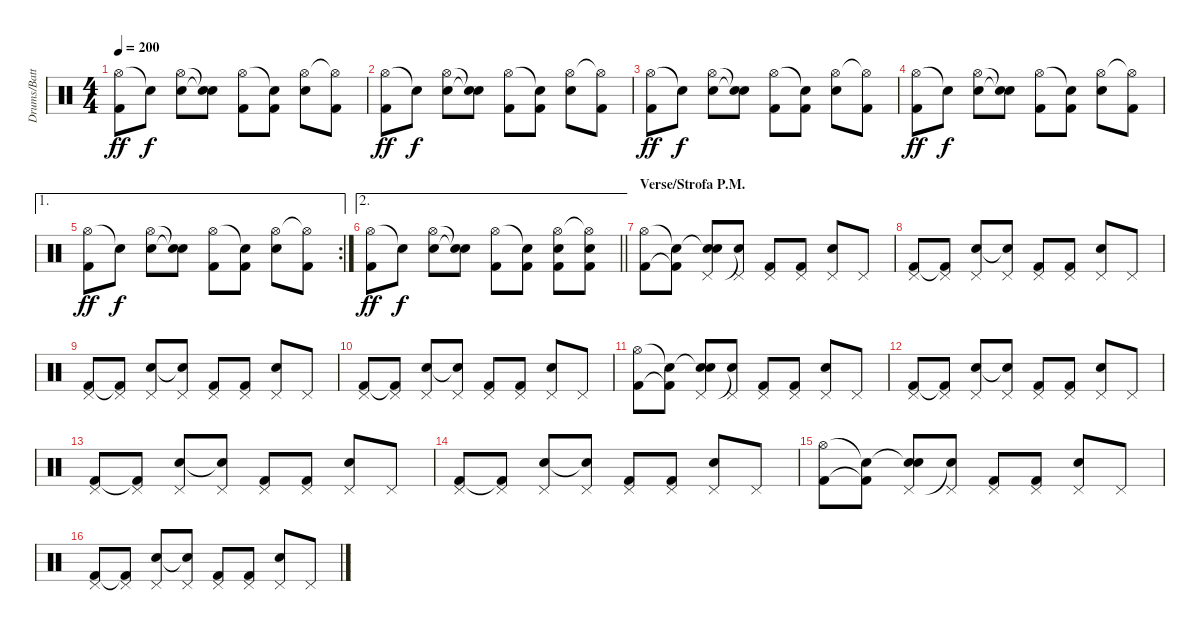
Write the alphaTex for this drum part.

\track ("Drums/Batteria" "Drums/Batt") {instrument percussion}
\staff {score}
\articulation defaults
\ts (4 4)
\tempo 200
\clef neutral
\ks c
("Hi-Hat (open)" "Kick (hit) 2").8{dy ff} "Snare (hit)"{t}.8{dy f} ("Hi-Hat (open)" "Electric Snare (hit)").8 ("Snare (hit)"{t} "Snare (hit)"{t}).8 ("Hi-Hat (open)" "Kick (hit) 2").8 ("Snare (hit)"{t} "Kick (hit) 2").8 ("Hi-Hat (open)" "Electric Snare (hit)").8 ("Hi-Hat (open)"{t} "Kick (hit) 2").8 |
("Hi-Hat (open)" "Kick (hit) 2").8{dy ff} "Snare (hit)"{t}.8{dy f} ("Hi-Hat (open)" "Electric Snare (hit)").8 ("Snare (hit)"{t} "Snare (hit)"{t}).8 ("Hi-Hat (open)" "Kick (hit) 2").8 ("Snare (hit)"{t} "Kick (hit) 2").8 ("Hi-Hat (open)" "Electric Snare (hit)").8 ("Hi-Hat (open)"{t} "Kick (hit) 2").8 |
("Hi-Hat (open)" "Kick (hit) 2").8{dy ff} "Snare (hit)"{t}.8{dy f} ("Hi-Hat (open)" "Electric Snare (hit)").8 ("Snare (hit)"{t} "Snare (hit)"{t}).8 ("Hi-Hat (open)" "Kick (hit) 2").8 ("Snare (hit)"{t} "Kick (hit) 2").8 ("Hi-Hat (open)" "Electric Snare (hit)").8 ("Hi-Hat (open)"{t} "Kick (hit) 2").8 |
("Hi-Hat (open)" "Kick (hit) 2").8{dy ff} "Snare (hit)"{t}.8{dy f} ("Hi-Hat (open)" "Electric Snare (hit)").8 ("Snare (hit)"{t} "Snare (hit)"{t}).8 ("Hi-Hat (open)" "Kick (hit) 2").8 ("Snare (hit)"{t} "Kick (hit) 2").8 ("Hi-Hat (open)" "Electric Snare (hit)").8 ("Hi-Hat (open)"{t} "Kick (hit) 2").8 |
\ae 1
\rc 2
("Hi-Hat (open)" "Kick (hit) 2").8{dy ff} "Snare (hit)"{t}.8{dy f} ("Hi-Hat (open)" "Electric Snare (hit)").8 ("Snare (hit)"{t} "Snare (hit)"{t}).8 ("Hi-Hat (open)" "Kick (hit) 2").8 ("Snare (hit)"{t} "Kick (hit) 2").8 ("Hi-Hat (open)" "Electric Snare (hit)").8 ("Hi-Hat (open)"{t} "Kick (hit) 2").8 |
\ae 2
\barLineRight lightlight
("Hi-Hat (open)" "Kick (hit) 2").8{dy ff} "Snare (hit)"{t}.8{dy f} ("Hi-Hat (open)" "Electric Snare (hit)").8 ("Snare (hit)"{t} "Snare (hit)"{t}).8 ("Hi-Hat (open)" "Kick (hit) 2").8 ("Snare (hit)"{t} "Kick (hit) 2").8 ("Hi-Hat (open)" "Electric Snare (hit)" "Kick (hit) 2").8 ("Hi-Hat (open)"{t} "Electric Snare (hit)" "Kick (hit) 2").8 |
\section ("" "Verse/Strofa P.M.")
("Hi-Hat (open)" "Kick (hit) 2").8 ("Snare (hit)"{t} "Kick (hit) 2"{t}).8 ("Snare (hit)"{t} "Pedal Hi-Hat (hit)" "Electric Snare (hit)").8 ("Pedal Hi-Hat (hit)" "Snare (hit)"{t}).8 ("Pedal Hi-Hat (hit)" "Kick (hit) 2").8 ("Pedal Hi-Hat (hit)" "Kick (hit) 2").8 ("Pedal Hi-Hat (hit)" "Electric Snare (hit)").8 "Pedal Hi-Hat (hit)".8 |
("Pedal Hi-Hat (hit)" "Kick (hit) 2").8 ("Pedal Hi-Hat (hit)" "Kick (hit) 2"{t}).8 ("Pedal Hi-Hat (hit)" "Electric Snare (hit)").8 ("Pedal Hi-Hat (hit)" "Electric Snare (hit)"{t}).8 ("Pedal Hi-Hat (hit)" "Kick (hit) 2").8 ("Pedal Hi-Hat (hit)" "Kick (hit) 2").8 ("Pedal Hi-Hat (hit)" "Electric Snare (hit)").8 "Pedal Hi-Hat (hit)".8 |
("Pedal Hi-Hat (hit)" "Kick (hit) 2").8 ("Pedal Hi-Hat (hit)" "Kick (hit) 2"{t}).8 ("Pedal Hi-Hat (hit)" "Electric Snare (hit)").8 ("Pedal Hi-Hat (hit)" "Electric Snare (hit)"{t}).8 ("Pedal Hi-Hat (hit)" "Kick (hit) 2").8 ("Pedal Hi-Hat (hit)" "Kick (hit) 2").8 ("Pedal Hi-Hat (hit)" "Electric Snare (hit)").8 "Pedal Hi-Hat (hit)".8 |
("Pedal Hi-Hat (hit)" "Kick (hit) 2").8 ("Pedal Hi-Hat (hit)" "Kick (hit) 2"{t}).8 ("Pedal Hi-Hat (hit)" "Electric Snare (hit)").8 ("Pedal Hi-Hat (hit)" "Electric Snare (hit)"{t}).8 ("Pedal Hi-Hat (hit)" "Kick (hit) 2").8 ("Pedal Hi-Hat (hit)" "Kick (hit) 2").8 ("Pedal Hi-Hat (hit)" "Electric Snare (hit)").8 "Pedal Hi-Hat (hit)".8 |
("Hi-Hat (open)" "Kick (hit) 2").8 ("Snare (hit)"{t} "Kick (hit) 2"{t}).8 ("Snare (hit)"{t} "Pedal Hi-Hat (hit)" "Electric Snare (hit)").8 ("Pedal Hi-Hat (hit)" "Snare (hit)"{t}).8 ("Pedal Hi-Hat (hit)" "Kick (hit) 2").8 ("Pedal Hi-Hat (hit)" "Kick (hit) 2").8 ("Pedal Hi-Hat (hit)" "Electric Snare (hit)").8 "Pedal Hi-Hat (hit)".8 |
("Pedal Hi-Hat (hit)" "Kick (hit) 2").8 ("Pedal Hi-Hat (hit)" "Kick (hit) 2"{t}).8 ("Pedal Hi-Hat (hit)" "Electric Snare (hit)").8 ("Pedal Hi-Hat (hit)" "Electric Snare (hit)"{t}).8 ("Pedal Hi-Hat (hit)" "Kick (hit) 2").8 ("Pedal Hi-Hat (hit)" "Kick (hit) 2").8 ("Pedal Hi-Hat (hit)" "Electric Snare (hit)").8 "Pedal Hi-Hat (hit)".8 |
("Pedal Hi-Hat (hit)" "Kick (hit) 2").8 ("Pedal Hi-Hat (hit)" "Kick (hit) 2"{t}).8 ("Pedal Hi-Hat (hit)" "Electric Snare (hit)").8 ("Pedal Hi-Hat (hit)" "Electric Snare (hit)"{t}).8 ("Pedal Hi-Hat (hit)" "Kick (hit) 2").8 ("Pedal Hi-Hat (hit)" "Kick (hit) 2").8 ("Pedal Hi-Hat (hit)" "Electric Snare (hit)").8 "Pedal Hi-Hat (hit)".8 |
("Pedal Hi-Hat (hit)" "Kick (hit) 2").8 ("Pedal Hi-Hat (hit)" "Kick (hit) 2"{t}).8 ("Pedal Hi-Hat (hit)" "Electric Snare (hit)").8 ("Pedal Hi-Hat (hit)" "Electric Snare (hit)"{t}).8 ("Pedal Hi-Hat (hit)" "Kick (hit) 2").8 ("Pedal Hi-Hat (hit)" "Kick (hit) 2").8 ("Pedal Hi-Hat (hit)" "Electric Snare (hit)").8 "Pedal Hi-Hat (hit)".8 |
("Hi-Hat (open)" "Kick (hit) 2").8 ("Snare (hit)"{t} "Kick (hit) 2"{t}).8 ("Snare (hit)"{t} "Pedal Hi-Hat (hit)" "Electric Snare (hit)").8 ("Pedal Hi-Hat (hit)" "Snare (hit)"{t}).8 ("Pedal Hi-Hat (hit)" "Kick (hit) 2").8 ("Pedal Hi-Hat (hit)" "Kick (hit) 2").8 ("Pedal Hi-Hat (hit)" "Electric Snare (hit)").8 "Pedal Hi-Hat (hit)".8 |
("Pedal Hi-Hat (hit)" "Kick (hit) 2").8 ("Pedal Hi-Hat (hit)" "Kick (hit) 2"{t}).8 ("Pedal Hi-Hat (hit)" "Electric Snare (hit)").8 ("Pedal Hi-Hat (hit)" "Electric Snare (hit)"{t}).8 ("Pedal Hi-Hat (hit)" "Kick (hit) 2").8 ("Pedal Hi-Hat (hit)" "Kick (hit) 2").8 ("Pedal Hi-Hat (hit)" "Electric Snare (hit)").8 "Pedal Hi-Hat (hit)".8
